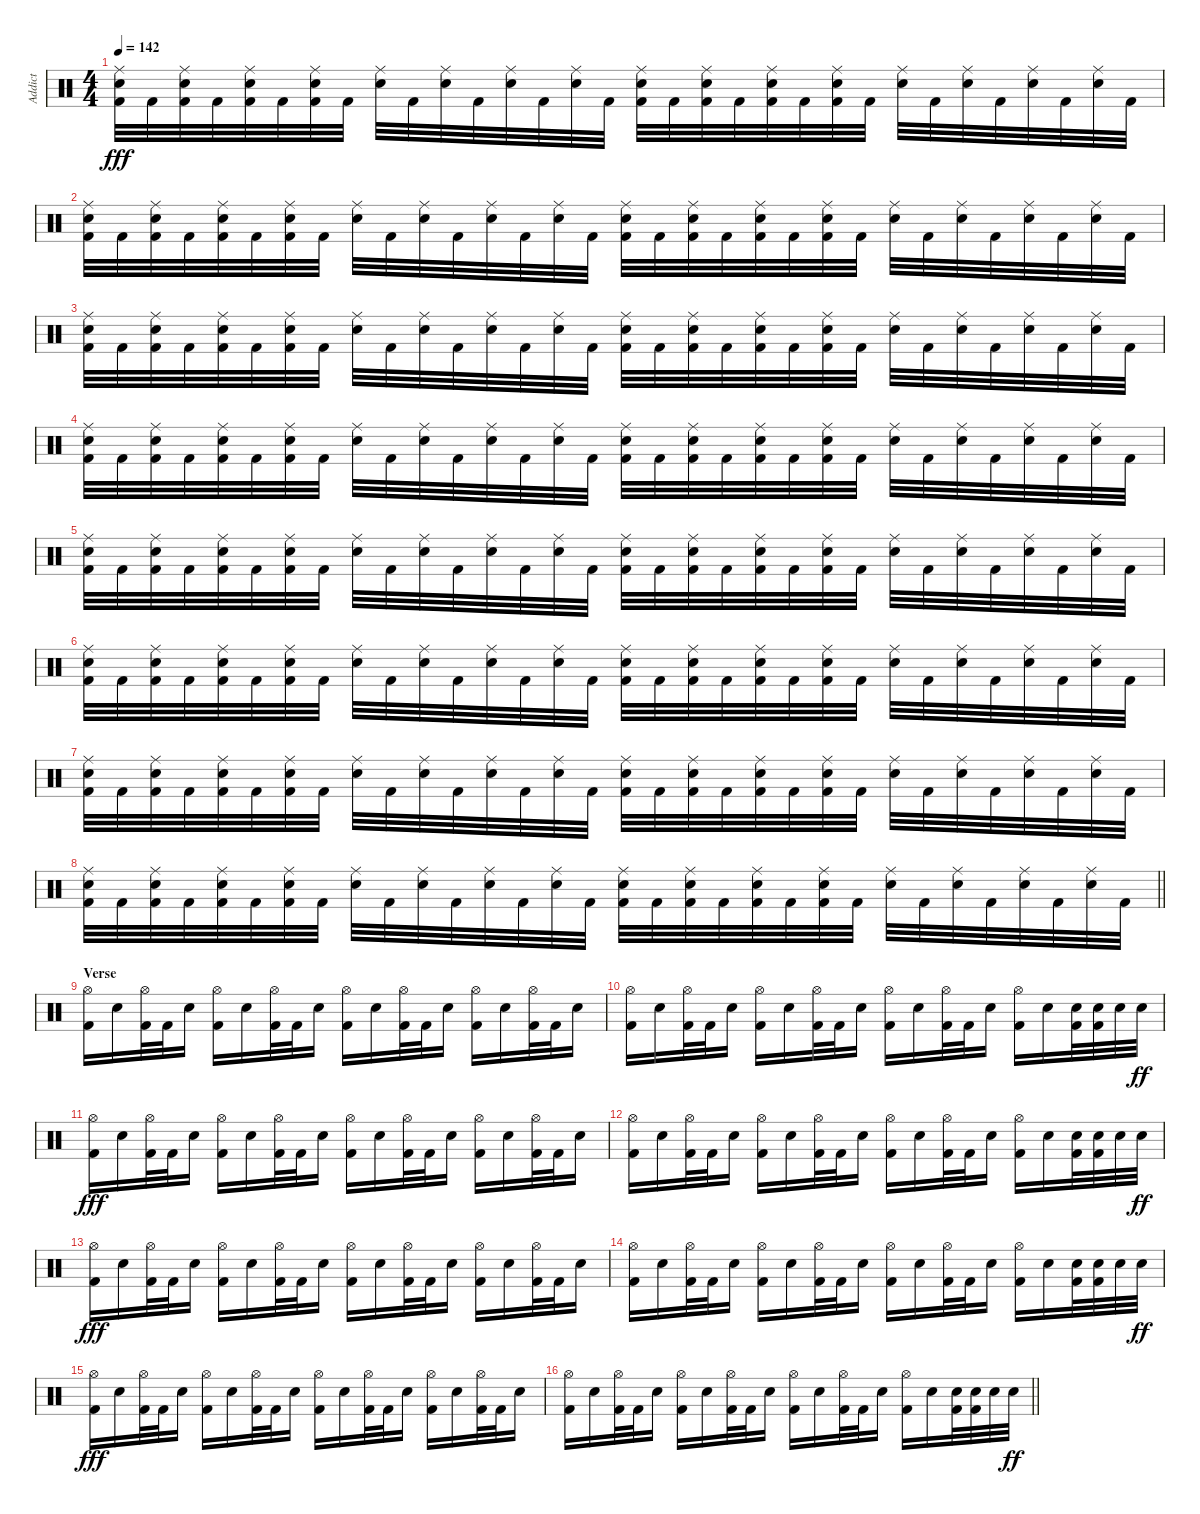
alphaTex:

\track ("Addict" "Addict") {instrument percussion}
\staff {score}
\articulation defaults
\ts (4 4)
\tempo 142
\clef neutral
\ks c
("Kick (hit) 2" "Snare (hit) 2" "Ride (middle)").32{dy fff} "Kick (hit) 2".32 ("Kick (hit) 2" "Snare (hit) 2" "Ride (middle)").32 "Kick (hit) 2".32 ("Kick (hit) 2" "Snare (hit) 2" "Ride (middle)").32 "Kick (hit) 2".32 ("Kick (hit) 2" "Snare (hit) 2" "Ride (middle)").32 "Kick (hit) 2".32 ("Snare (hit) 2" "Ride (middle)").32 "Kick (hit) 2".32 ("Snare (hit) 2" "Ride (middle)").32 "Kick (hit) 2".32 ("Snare (hit) 2" "Ride (middle)").32 "Kick (hit) 2".32 ("Snare (hit) 2" "Ride (middle)").32 "Kick (hit) 2".32 ("Kick (hit) 2" "Snare (hit) 2" "Ride (middle)").32 "Kick (hit) 2".32 ("Kick (hit) 2" "Snare (hit) 2" "Ride (middle)").32 "Kick (hit) 2".32 ("Kick (hit) 2" "Snare (hit) 2" "Ride (middle)").32 "Kick (hit) 2".32 ("Kick (hit) 2" "Snare (hit) 2" "Ride (middle)").32 "Kick (hit) 2".32 ("Snare (hit) 2" "Ride (middle)").32 "Kick (hit) 2".32 ("Snare (hit) 2" "Ride (middle)").32 "Kick (hit) 2".32 ("Snare (hit) 2" "Ride (middle)").32 "Kick (hit) 2".32 ("Snare (hit) 2" "Ride (middle)").32 "Kick (hit) 2".32 |
("Kick (hit) 2" "Snare (hit) 2" "Ride (middle)").32 "Kick (hit) 2".32 ("Kick (hit) 2" "Snare (hit) 2" "Ride (middle)").32 "Kick (hit) 2".32 ("Kick (hit) 2" "Snare (hit) 2" "Ride (middle)").32 "Kick (hit) 2".32 ("Kick (hit) 2" "Snare (hit) 2" "Ride (middle)").32 "Kick (hit) 2".32 ("Snare (hit) 2" "Ride (middle)").32 "Kick (hit) 2".32 ("Snare (hit) 2" "Ride (middle)").32 "Kick (hit) 2".32 ("Snare (hit) 2" "Ride (middle)").32 "Kick (hit) 2".32 ("Snare (hit) 2" "Ride (middle)").32 "Kick (hit) 2".32 ("Kick (hit) 2" "Snare (hit) 2" "Ride (middle)").32 "Kick (hit) 2".32 ("Kick (hit) 2" "Snare (hit) 2" "Ride (middle)").32 "Kick (hit) 2".32 ("Kick (hit) 2" "Snare (hit) 2" "Ride (middle)").32 "Kick (hit) 2".32 ("Kick (hit) 2" "Snare (hit) 2" "Ride (middle)").32 "Kick (hit) 2".32 ("Snare (hit) 2" "Ride (middle)").32 "Kick (hit) 2".32 ("Snare (hit) 2" "Ride (middle)").32 "Kick (hit) 2".32 ("Snare (hit) 2" "Ride (middle)").32 "Kick (hit) 2".32 ("Snare (hit) 2" "Ride (middle)").32 "Kick (hit) 2".32 |
("Kick (hit) 2" "Snare (hit) 2" "Ride (middle)").32 "Kick (hit) 2".32 ("Kick (hit) 2" "Snare (hit) 2" "Ride (middle)").32 "Kick (hit) 2".32 ("Kick (hit) 2" "Snare (hit) 2" "Ride (middle)").32 "Kick (hit) 2".32 ("Kick (hit) 2" "Snare (hit) 2" "Ride (middle)").32 "Kick (hit) 2".32 ("Snare (hit) 2" "Ride (middle)").32 "Kick (hit) 2".32 ("Snare (hit) 2" "Ride (middle)").32 "Kick (hit) 2".32 ("Snare (hit) 2" "Ride (middle)").32 "Kick (hit) 2".32 ("Snare (hit) 2" "Ride (middle)").32 "Kick (hit) 2".32 ("Kick (hit) 2" "Snare (hit) 2" "Ride (middle)").32 "Kick (hit) 2".32 ("Kick (hit) 2" "Snare (hit) 2" "Ride (middle)").32 "Kick (hit) 2".32 ("Kick (hit) 2" "Snare (hit) 2" "Ride (middle)").32 "Kick (hit) 2".32 ("Kick (hit) 2" "Snare (hit) 2" "Ride (middle)").32 "Kick (hit) 2".32 ("Snare (hit) 2" "Ride (middle)").32 "Kick (hit) 2".32 ("Snare (hit) 2" "Ride (middle)").32 "Kick (hit) 2".32 ("Snare (hit) 2" "Ride (middle)").32 "Kick (hit) 2".32 ("Snare (hit) 2" "Ride (middle)").32 "Kick (hit) 2".32 |
("Kick (hit) 2" "Snare (hit) 2" "Ride (middle)").32 "Kick (hit) 2".32 ("Kick (hit) 2" "Snare (hit) 2" "Ride (middle)").32 "Kick (hit) 2".32 ("Kick (hit) 2" "Snare (hit) 2" "Ride (middle)").32 "Kick (hit) 2".32 ("Kick (hit) 2" "Snare (hit) 2" "Ride (middle)").32 "Kick (hit) 2".32 ("Snare (hit) 2" "Ride (middle)").32 "Kick (hit) 2".32 ("Snare (hit) 2" "Ride (middle)").32 "Kick (hit) 2".32 ("Snare (hit) 2" "Ride (middle)").32 "Kick (hit) 2".32 ("Snare (hit) 2" "Ride (middle)").32 "Kick (hit) 2".32 ("Kick (hit) 2" "Snare (hit) 2" "Ride (middle)").32 "Kick (hit) 2".32 ("Kick (hit) 2" "Snare (hit) 2" "Ride (middle)").32 "Kick (hit) 2".32 ("Kick (hit) 2" "Snare (hit) 2" "Ride (middle)").32 "Kick (hit) 2".32 ("Kick (hit) 2" "Snare (hit) 2" "Ride (middle)").32 "Kick (hit) 2".32 ("Snare (hit) 2" "Ride (middle)").32 "Kick (hit) 2".32 ("Snare (hit) 2" "Ride (middle)").32 "Kick (hit) 2".32 ("Snare (hit) 2" "Ride (middle)").32 "Kick (hit) 2".32 ("Snare (hit) 2" "Ride (middle)").32 "Kick (hit) 2".32 |
("Kick (hit) 2" "Snare (hit) 2" "Ride (middle)").32 "Kick (hit) 2".32 ("Kick (hit) 2" "Snare (hit) 2" "Ride (middle)").32 "Kick (hit) 2".32 ("Kick (hit) 2" "Snare (hit) 2" "Ride (middle)").32 "Kick (hit) 2".32 ("Kick (hit) 2" "Snare (hit) 2" "Ride (middle)").32 "Kick (hit) 2".32 ("Snare (hit) 2" "Ride (middle)").32 "Kick (hit) 2".32 ("Snare (hit) 2" "Ride (middle)").32 "Kick (hit) 2".32 ("Snare (hit) 2" "Ride (middle)").32 "Kick (hit) 2".32 ("Snare (hit) 2" "Ride (middle)").32 "Kick (hit) 2".32 ("Kick (hit) 2" "Snare (hit) 2" "Ride (middle)").32 "Kick (hit) 2".32 ("Kick (hit) 2" "Snare (hit) 2" "Ride (middle)").32 "Kick (hit) 2".32 ("Kick (hit) 2" "Snare (hit) 2" "Ride (middle)").32 "Kick (hit) 2".32 ("Kick (hit) 2" "Snare (hit) 2" "Ride (middle)").32 "Kick (hit) 2".32 ("Snare (hit) 2" "Ride (middle)").32 "Kick (hit) 2".32 ("Snare (hit) 2" "Ride (middle)").32 "Kick (hit) 2".32 ("Snare (hit) 2" "Ride (middle)").32 "Kick (hit) 2".32 ("Snare (hit) 2" "Ride (middle)").32 "Kick (hit) 2".32 |
("Kick (hit) 2" "Snare (hit) 2" "Ride (middle)").32 "Kick (hit) 2".32 ("Kick (hit) 2" "Snare (hit) 2" "Ride (middle)").32 "Kick (hit) 2".32 ("Kick (hit) 2" "Snare (hit) 2" "Ride (middle)").32 "Kick (hit) 2".32 ("Kick (hit) 2" "Snare (hit) 2" "Ride (middle)").32 "Kick (hit) 2".32 ("Snare (hit) 2" "Ride (middle)").32 "Kick (hit) 2".32 ("Snare (hit) 2" "Ride (middle)").32 "Kick (hit) 2".32 ("Snare (hit) 2" "Ride (middle)").32 "Kick (hit) 2".32 ("Snare (hit) 2" "Ride (middle)").32 "Kick (hit) 2".32 ("Kick (hit) 2" "Snare (hit) 2" "Ride (middle)").32 "Kick (hit) 2".32 ("Kick (hit) 2" "Snare (hit) 2" "Ride (middle)").32 "Kick (hit) 2".32 ("Kick (hit) 2" "Snare (hit) 2" "Ride (middle)").32 "Kick (hit) 2".32 ("Kick (hit) 2" "Snare (hit) 2" "Ride (middle)").32 "Kick (hit) 2".32 ("Snare (hit) 2" "Ride (middle)").32 "Kick (hit) 2".32 ("Snare (hit) 2" "Ride (middle)").32 "Kick (hit) 2".32 ("Snare (hit) 2" "Ride (middle)").32 "Kick (hit) 2".32 ("Snare (hit) 2" "Ride (middle)").32 "Kick (hit) 2".32 |
("Kick (hit) 2" "Snare (hit) 2" "Ride (middle)").32 "Kick (hit) 2".32 ("Kick (hit) 2" "Snare (hit) 2" "Ride (middle)").32 "Kick (hit) 2".32 ("Kick (hit) 2" "Snare (hit) 2" "Ride (middle)").32 "Kick (hit) 2".32 ("Kick (hit) 2" "Snare (hit) 2" "Ride (middle)").32 "Kick (hit) 2".32 ("Snare (hit) 2" "Ride (middle)").32 "Kick (hit) 2".32 ("Snare (hit) 2" "Ride (middle)").32 "Kick (hit) 2".32 ("Snare (hit) 2" "Ride (middle)").32 "Kick (hit) 2".32 ("Snare (hit) 2" "Ride (middle)").32 "Kick (hit) 2".32 ("Kick (hit) 2" "Snare (hit) 2" "Ride (middle)").32 "Kick (hit) 2".32 ("Kick (hit) 2" "Snare (hit) 2" "Ride (middle)").32 "Kick (hit) 2".32 ("Kick (hit) 2" "Snare (hit) 2" "Ride (middle)").32 "Kick (hit) 2".32 ("Kick (hit) 2" "Snare (hit) 2" "Ride (middle)").32 "Kick (hit) 2".32 ("Snare (hit) 2" "Ride (middle)").32 "Kick (hit) 2".32 ("Snare (hit) 2" "Ride (middle)").32 "Kick (hit) 2".32 ("Snare (hit) 2" "Ride (middle)").32 "Kick (hit) 2".32 ("Snare (hit) 2" "Ride (middle)").32 "Kick (hit) 2".32 |
\barLineRight lightlight
("Kick (hit) 2" "Snare (hit) 2" "Ride (middle)").32 "Kick (hit) 2".32 ("Kick (hit) 2" "Snare (hit) 2" "Ride (middle)").32 "Kick (hit) 2".32 ("Kick (hit) 2" "Snare (hit) 2" "Ride (middle)").32 "Kick (hit) 2".32 ("Kick (hit) 2" "Snare (hit) 2" "Ride (middle)").32 "Kick (hit) 2".32 ("Snare (hit) 2" "Ride (middle)").32 "Kick (hit) 2".32 ("Snare (hit) 2" "Ride (middle)").32 "Kick (hit) 2".32 ("Snare (hit) 2" "Ride (middle)").32 "Kick (hit) 2".32 ("Snare (hit) 2" "Ride (middle)").32 "Kick (hit) 2".32 ("Kick (hit) 2" "Snare (hit) 2" "Ride (middle)").32 "Kick (hit) 2".32 ("Kick (hit) 2" "Snare (hit) 2" "Ride (middle)").32 "Kick (hit) 2".32 ("Kick (hit) 2" "Snare (hit) 2" "Ride (middle)").32 "Kick (hit) 2".32 ("Kick (hit) 2" "Snare (hit) 2" "Ride (middle)").32 "Kick (hit) 2".32 ("Snare (hit) 2" "Ride (middle)").32 "Kick (hit) 2".32 ("Snare (hit) 2" "Ride (middle)").32 "Kick (hit) 2".32 ("Snare (hit) 2" "Ride (middle)").32 "Kick (hit) 2".32 ("Snare (hit) 2" "Ride (middle)").32 "Kick (hit) 2".32 |
\section ("" "Verse")
("Kick (hit) 2" "Hi-Hat (open)").16 "Snare (hit) 2".16 ("Kick (hit) 2" "Hi-Hat (open)").32 "Kick (hit) 2".32 "Snare (hit) 2".16 ("Kick (hit) 2" "Hi-Hat (open)").16 "Snare (hit) 2".16 ("Kick (hit) 2" "Hi-Hat (open)").32 "Kick (hit) 2".32 "Snare (hit) 2".16 ("Kick (hit) 2" "Hi-Hat (open)").16 "Snare (hit) 2".16 ("Kick (hit) 2" "Hi-Hat (open)").32 "Kick (hit) 2".32 "Snare (hit) 2".16 ("Kick (hit) 2" "Hi-Hat (open)").16 "Snare (hit) 2".16 ("Kick (hit) 2" "Hi-Hat (open)").32 "Kick (hit) 2".32 "Snare (hit) 2".16 |
("Kick (hit) 2" "Hi-Hat (open)").16 "Snare (hit) 2".16 ("Kick (hit) 2" "Hi-Hat (open)").32 "Kick (hit) 2".32 "Snare (hit) 2".16 ("Kick (hit) 2" "Hi-Hat (open)").16 "Snare (hit) 2".16 ("Kick (hit) 2" "Hi-Hat (open)").32 "Kick (hit) 2".32 "Snare (hit) 2".16 ("Kick (hit) 2" "Hi-Hat (open)").16 "Snare (hit) 2".16 ("Kick (hit) 2" "Hi-Hat (open)").32 "Kick (hit) 2".32 "Snare (hit) 2".16 ("Kick (hit) 2" "Hi-Hat (open)").16 "Snare (hit) 2".16 ("Kick (hit) 2" "Snare (hit) 2").32 ("Kick (hit) 2" "Snare (hit) 2").32 "Snare (hit) 2".32 "Snare (hit) 2".32{dy ff} |
("Kick (hit) 2" "Hi-Hat (open)").16{dy fff} "Snare (hit) 2".16 ("Kick (hit) 2" "Hi-Hat (open)").32 "Kick (hit) 2".32 "Snare (hit) 2".16 ("Kick (hit) 2" "Hi-Hat (open)").16 "Snare (hit) 2".16 ("Kick (hit) 2" "Hi-Hat (open)").32 "Kick (hit) 2".32 "Snare (hit) 2".16 ("Kick (hit) 2" "Hi-Hat (open)").16 "Snare (hit) 2".16 ("Kick (hit) 2" "Hi-Hat (open)").32 "Kick (hit) 2".32 "Snare (hit) 2".16 ("Kick (hit) 2" "Hi-Hat (open)").16 "Snare (hit) 2".16 ("Kick (hit) 2" "Hi-Hat (open)").32 "Kick (hit) 2".32 "Snare (hit) 2".16 |
("Kick (hit) 2" "Hi-Hat (open)").16 "Snare (hit) 2".16 ("Kick (hit) 2" "Hi-Hat (open)").32 "Kick (hit) 2".32 "Snare (hit) 2".16 ("Kick (hit) 2" "Hi-Hat (open)").16 "Snare (hit) 2".16 ("Kick (hit) 2" "Hi-Hat (open)").32 "Kick (hit) 2".32 "Snare (hit) 2".16 ("Kick (hit) 2" "Hi-Hat (open)").16 "Snare (hit) 2".16 ("Kick (hit) 2" "Hi-Hat (open)").32 "Kick (hit) 2".32 "Snare (hit) 2".16 ("Kick (hit) 2" "Hi-Hat (open)").16 "Snare (hit) 2".16 ("Kick (hit) 2" "Snare (hit) 2").32 ("Kick (hit) 2" "Snare (hit) 2").32 "Snare (hit) 2".32 "Snare (hit) 2".32{dy ff} |
("Kick (hit) 2" "Hi-Hat (open)").16{dy fff} "Snare (hit) 2".16 ("Kick (hit) 2" "Hi-Hat (open)").32 "Kick (hit) 2".32 "Snare (hit) 2".16 ("Kick (hit) 2" "Hi-Hat (open)").16 "Snare (hit) 2".16 ("Kick (hit) 2" "Hi-Hat (open)").32 "Kick (hit) 2".32 "Snare (hit) 2".16 ("Kick (hit) 2" "Hi-Hat (open)").16 "Snare (hit) 2".16 ("Kick (hit) 2" "Hi-Hat (open)").32 "Kick (hit) 2".32 "Snare (hit) 2".16 ("Kick (hit) 2" "Hi-Hat (open)").16 "Snare (hit) 2".16 ("Kick (hit) 2" "Hi-Hat (open)").32 "Kick (hit) 2".32 "Snare (hit) 2".16 |
("Kick (hit) 2" "Hi-Hat (open)").16 "Snare (hit) 2".16 ("Kick (hit) 2" "Hi-Hat (open)").32 "Kick (hit) 2".32 "Snare (hit) 2".16 ("Kick (hit) 2" "Hi-Hat (open)").16 "Snare (hit) 2".16 ("Kick (hit) 2" "Hi-Hat (open)").32 "Kick (hit) 2".32 "Snare (hit) 2".16 ("Kick (hit) 2" "Hi-Hat (open)").16 "Snare (hit) 2".16 ("Kick (hit) 2" "Hi-Hat (open)").32 "Kick (hit) 2".32 "Snare (hit) 2".16 ("Kick (hit) 2" "Hi-Hat (open)").16 "Snare (hit) 2".16 ("Kick (hit) 2" "Snare (hit) 2").32 ("Kick (hit) 2" "Snare (hit) 2").32 "Snare (hit) 2".32 "Snare (hit) 2".32{dy ff} |
("Kick (hit) 2" "Hi-Hat (open)").16{dy fff} "Snare (hit) 2".16 ("Kick (hit) 2" "Hi-Hat (open)").32 "Kick (hit) 2".32 "Snare (hit) 2".16 ("Kick (hit) 2" "Hi-Hat (open)").16 "Snare (hit) 2".16 ("Kick (hit) 2" "Hi-Hat (open)").32 "Kick (hit) 2".32 "Snare (hit) 2".16 ("Kick (hit) 2" "Hi-Hat (open)").16 "Snare (hit) 2".16 ("Kick (hit) 2" "Hi-Hat (open)").32 "Kick (hit) 2".32 "Snare (hit) 2".16 ("Kick (hit) 2" "Hi-Hat (open)").16 "Snare (hit) 2".16 ("Kick (hit) 2" "Hi-Hat (open)").32 "Kick (hit) 2".32 "Snare (hit) 2".16 |
\barLineRight lightlight
("Kick (hit) 2" "Hi-Hat (open)").16 "Snare (hit) 2".16 ("Kick (hit) 2" "Hi-Hat (open)").32 "Kick (hit) 2".32 "Snare (hit) 2".16 ("Kick (hit) 2" "Hi-Hat (open)").16 "Snare (hit) 2".16 ("Kick (hit) 2" "Hi-Hat (open)").32 "Kick (hit) 2".32 "Snare (hit) 2".16 ("Kick (hit) 2" "Hi-Hat (open)").16 "Snare (hit) 2".16 ("Kick (hit) 2" "Hi-Hat (open)").32 "Kick (hit) 2".32 "Snare (hit) 2".16 ("Kick (hit) 2" "Hi-Hat (open)").16 "Snare (hit) 2".16 ("Kick (hit) 2" "Snare (hit) 2").32 ("Kick (hit) 2" "Snare (hit) 2").32 "Snare (hit) 2".32 "Snare (hit) 2".32{dy ff}
